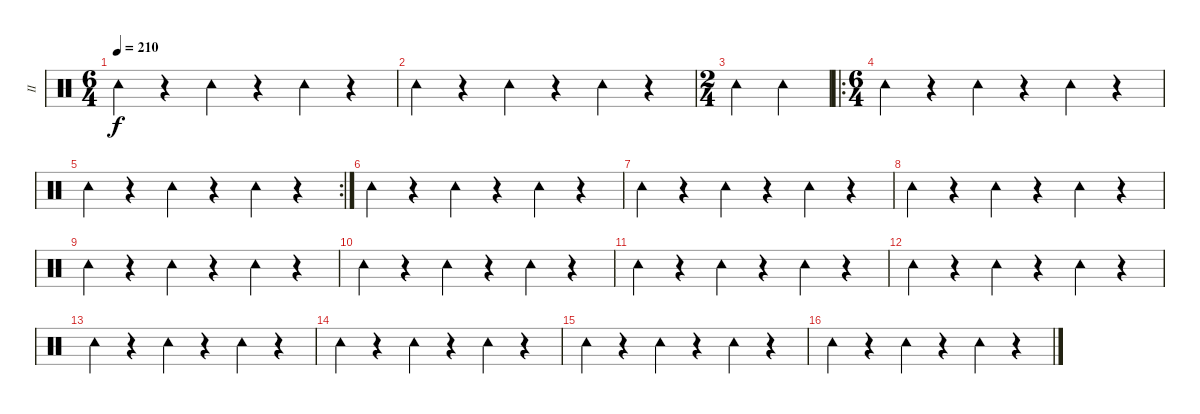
\track ("II" "II") {instrument percussion}
\staff {score}
\articulation defaults
\ts (6 4)
\tempo 210
\clef neutral
\ks c "Tambourine (hit)".4{dy f}
r.4 "Tambourine (hit)".4 r.4 "Tambourine (hit)".4 r.4 |
"Tambourine (hit)".4 r.4 "Tambourine (hit)".4 r.4 "Tambourine (hit)".4 r.4 |
\ts (2 4)
"Tambourine (hit)".4 "Tambourine (hit)".4 |
\ro
\ts (6 4)
"Tambourine (hit)".4 r.4 "Tambourine (hit)".4 r.4 "Tambourine (hit)".4 r.4 |
\rc 2 "Tambourine (hit)".4
r.4 "Tambourine (hit)".4 r.4 "Tambourine (hit)".4 r.4 |
"Tambourine (hit)".4 r.4 "Tambourine (hit)".4 r.4 "Tambourine (hit)".4 r.4 |
"Tambourine (hit)".4 r.4 "Tambourine (hit)".4 r.4 "Tambourine (hit)".4 r.4 |
"Tambourine (hit)".4 r.4 "Tambourine (hit)".4 r.4 "Tambourine (hit)".4 r.4 |
"Tambourine (hit)".4 r.4 "Tambourine (hit)".4 r.4 "Tambourine (hit)".4 r.4 |
"Tambourine (hit)".4 r.4 "Tambourine (hit)".4 r.4 "Tambourine (hit)".4 r.4 |
"Tambourine (hit)".4 r.4 "Tambourine (hit)".4 r.4 "Tambourine (hit)".4 r.4 |
"Tambourine (hit)".4 r.4 "Tambourine (hit)".4 r.4 "Tambourine (hit)".4 r.4 |
"Tambourine (hit)".4 r.4 "Tambourine (hit)".4 r.4 "Tambourine (hit)".4 r.4 |
"Tambourine (hit)".4 r.4 "Tambourine (hit)".4 r.4 "Tambourine (hit)".4 r.4 |
"Tambourine (hit)".4 r.4 "Tambourine (hit)".4 r.4 "Tambourine (hit)".4 r.4 |
"Tambourine (hit)".4 r.4 "Tambourine (hit)".4 r.4 "Tambourine (hit)".4 r.4
